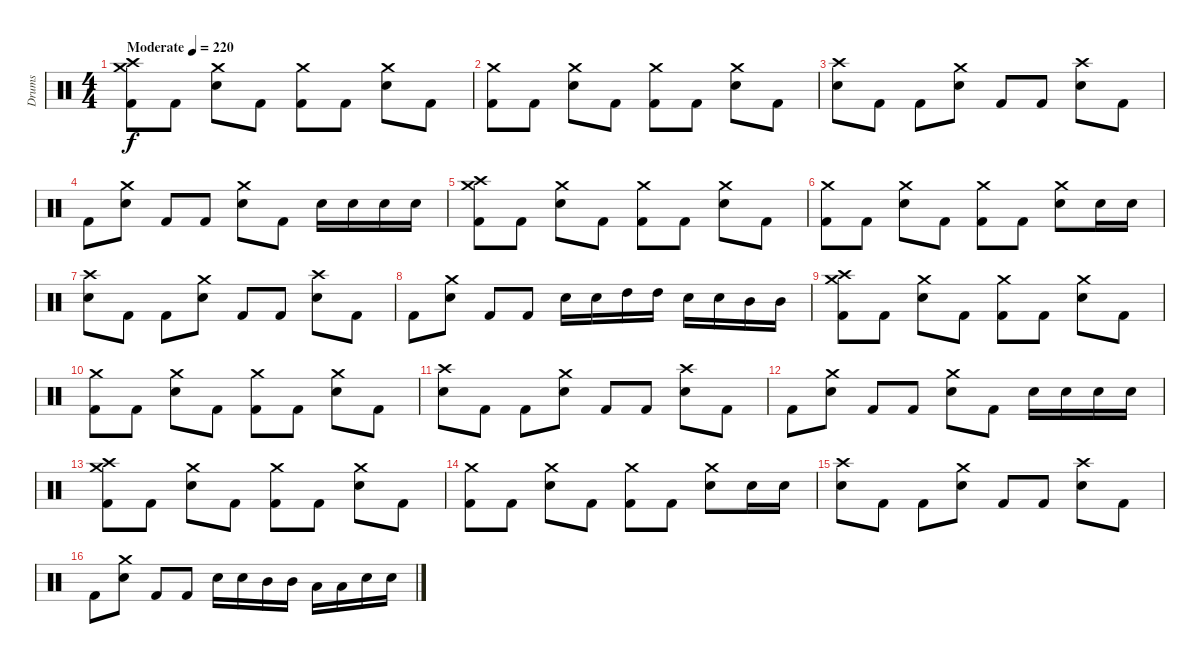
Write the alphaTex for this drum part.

\track ("Drums" "Drums") {instrument percussion}
\staff {score}
\articulation defaults
\ts (4 4)
\tempo (220 "Moderate")
\clef neutral
\ks c
("Crash medium (hit)" "Crash high (hit)" "Kick (hit) 2").8{dy f} "Kick (hit) 2".8 ("Crash medium (hit)" "Electric Snare (hit)").8 "Kick (hit) 2".8 ("Crash medium (hit)" "Kick (hit) 2").8 "Kick (hit) 2".8 ("Crash medium (hit)" "Electric Snare (hit)").8 "Kick (hit) 2".8 |
("Crash medium (hit)" "Kick (hit) 2").8 "Kick (hit) 2".8 ("Crash medium (hit)" "Electric Snare (hit)").8 "Kick (hit) 2".8 ("Crash medium (hit)" "Kick (hit) 2").8 "Kick (hit) 2".8 ("Crash medium (hit)" "Electric Snare (hit)").8 "Kick (hit) 2".8 |
("Crash high (hit)" "Electric Snare (hit)").8 "Kick (hit) 2".8 "Kick (hit) 2".8 ("Crash medium (hit)" "Electric Snare (hit)").8 "Kick (hit) 2".8 "Kick (hit) 2".8 ("Crash high (hit)" "Electric Snare (hit)").8 "Kick (hit) 2".8 |
"Kick (hit) 2".8 ("Crash medium (hit)" "Electric Snare (hit)").8 "Kick (hit) 2".8 "Kick (hit) 2".8 ("Crash medium (hit)" "Electric Snare (hit)").8 "Kick (hit) 2".8 "Electric Snare (hit)".16 "Electric Snare (hit)".16 "Electric Snare (hit)".16 "Electric Snare (hit)".16 |
("Crash medium (hit)" "Crash high (hit)" "Kick (hit) 2").8 "Kick (hit) 2".8 ("Crash medium (hit)" "Electric Snare (hit)").8 "Kick (hit) 2".8 ("Crash medium (hit)" "Kick (hit) 2").8 "Kick (hit) 2".8 ("Crash medium (hit)" "Electric Snare (hit)").8 "Kick (hit) 2".8 |
("Crash medium (hit)" "Kick (hit) 2").8 "Kick (hit) 2".8 ("Crash medium (hit)" "Electric Snare (hit)").8 "Kick (hit) 2".8 ("Crash medium (hit)" "Kick (hit) 2").8 "Kick (hit) 2".8 ("Crash medium (hit)" "Electric Snare (hit)").8 "Electric Snare (hit)".16 "Electric Snare (hit)".16 |
("Crash high (hit)" "Electric Snare (hit)").8 "Kick (hit) 2".8 "Kick (hit) 2".8 ("Crash medium (hit)" "Electric Snare (hit)").8 "Kick (hit) 2".8 "Kick (hit) 2".8 ("Crash high (hit)" "Electric Snare (hit)").8 "Kick (hit) 2".8 |
"Kick (hit) 2".8 ("Crash medium (hit)" "Electric Snare (hit)").8 "Kick (hit) 2".8 "Kick (hit) 2".8 "Electric Snare (hit)".16 "Electric Snare (hit)".16 "High Tom (hit)".16 "High Tom (hit)".16 "Electric Snare (hit)".16 "Electric Snare (hit)".16 "Mid Tom (hit)".16 "Mid Tom (hit)".16 |
("Crash medium (hit)" "Crash high (hit)" "Kick (hit) 2").8 "Kick (hit) 2".8 ("Crash medium (hit)" "Electric Snare (hit)").8 "Kick (hit) 2".8 ("Crash medium (hit)" "Kick (hit) 2").8 "Kick (hit) 2".8 ("Crash medium (hit)" "Electric Snare (hit)").8 "Kick (hit) 2".8 |
("Crash medium (hit)" "Kick (hit) 2").8 "Kick (hit) 2".8 ("Crash medium (hit)" "Electric Snare (hit)").8 "Kick (hit) 2".8 ("Crash medium (hit)" "Kick (hit) 2").8 "Kick (hit) 2".8 ("Crash medium (hit)" "Electric Snare (hit)").8 "Kick (hit) 2".8 |
("Crash high (hit)" "Electric Snare (hit)").8 "Kick (hit) 2".8 "Kick (hit) 2".8 ("Crash medium (hit)" "Electric Snare (hit)").8 "Kick (hit) 2".8 "Kick (hit) 2".8 ("Crash high (hit)" "Electric Snare (hit)").8 "Kick (hit) 2".8 |
"Kick (hit) 2".8 ("Crash medium (hit)" "Electric Snare (hit)").8 "Kick (hit) 2".8 "Kick (hit) 2".8 ("Crash medium (hit)" "Electric Snare (hit)").8 "Kick (hit) 2".8 "Electric Snare (hit)".16 "Electric Snare (hit)".16 "Electric Snare (hit)".16 "Electric Snare (hit)".16 |
("Crash medium (hit)" "Crash high (hit)" "Kick (hit) 2").8 "Kick (hit) 2".8 ("Crash medium (hit)" "Electric Snare (hit)").8 "Kick (hit) 2".8 ("Crash medium (hit)" "Kick (hit) 2").8 "Kick (hit) 2".8 ("Crash medium (hit)" "Electric Snare (hit)").8 "Kick (hit) 2".8 |
("Crash medium (hit)" "Kick (hit) 2").8 "Kick (hit) 2".8 ("Crash medium (hit)" "Electric Snare (hit)").8 "Kick (hit) 2".8 ("Crash medium (hit)" "Kick (hit) 2").8 "Kick (hit) 2".8 ("Crash medium (hit)" "Electric Snare (hit)").8 "Electric Snare (hit)".16 "Electric Snare (hit)".16 |
("Crash high (hit)" "Electric Snare (hit)").8 "Kick (hit) 2".8 "Kick (hit) 2".8 ("Crash medium (hit)" "Electric Snare (hit)").8 "Kick (hit) 2".8 "Kick (hit) 2".8 ("Crash high (hit)" "Electric Snare (hit)").8 "Kick (hit) 2".8 |
"Kick (hit) 2".8 ("Crash medium (hit)" "Electric Snare (hit)").8 "Kick (hit) 2".8 "Kick (hit) 2".8 "Electric Snare (hit)".16 "Electric Snare (hit)".16 "Mid Tom (hit)".16 "Mid Tom (hit)".16 "Low Tom (hit)".16 "Low Tom (hit)".16 "Electric Snare (hit)".16 "Electric Snare (hit)".16
